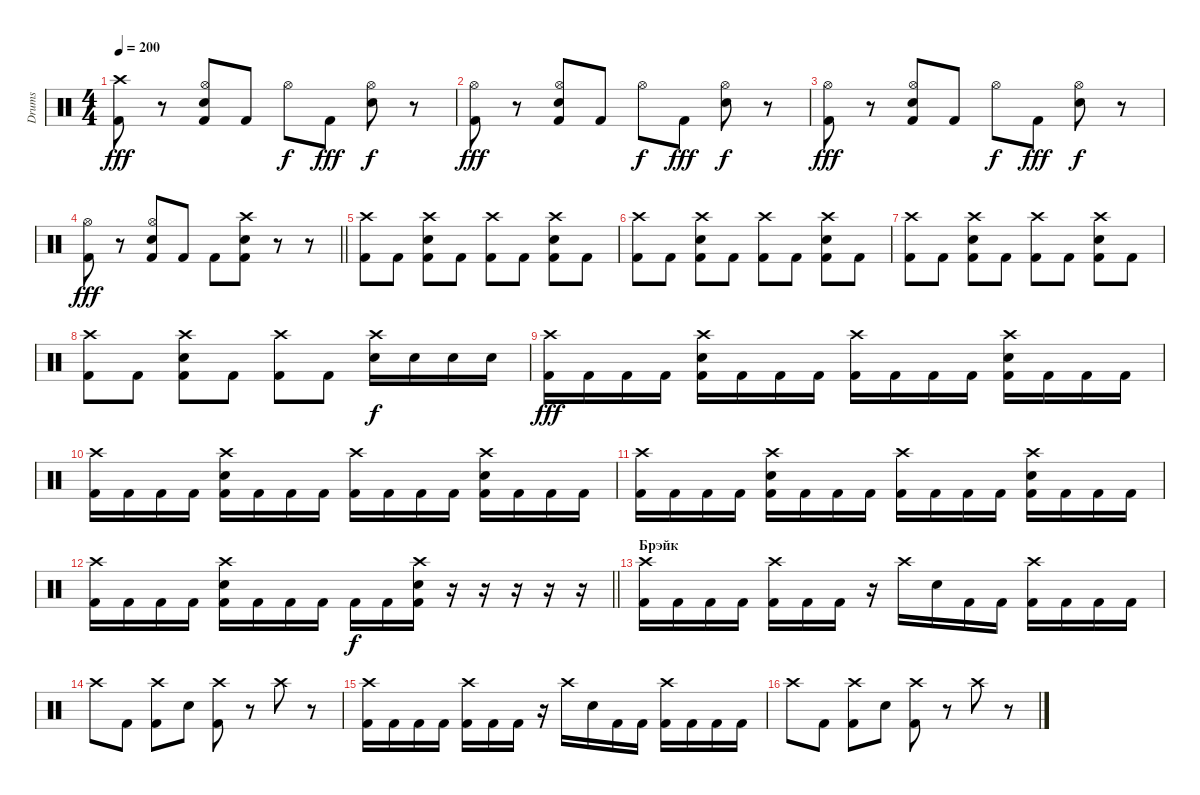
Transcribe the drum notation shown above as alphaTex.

\track ("Drums" "Drums") {instrument percussion}
\staff {score}
\articulation defaults
\ts (4 4)
\tempo 200
\clef neutral
\ks c
("Crash high (hit)" "Kick (hit) 2").8{dy fff} r.8 ("Hi-Hat (open)" "Electric Snare (hit)" "Kick (hit) 2").8 "Kick (hit) 2".8 "Hi-Hat (open)".8{dy f} "Kick (hit) 2".8{dy fff} ("Hi-Hat (open)" "Electric Snare (hit)").8{dy f} r.8 |
("Hi-Hat (open)" "Kick (hit) 2").8{dy fff} r.8 ("Hi-Hat (open)" "Electric Snare (hit)" "Kick (hit) 2").8 "Kick (hit) 2".8 "Hi-Hat (open)".8{dy f} "Kick (hit) 2".8{dy fff} ("Hi-Hat (open)" "Electric Snare (hit)").8{dy f} r.8 |
("Hi-Hat (open)" "Kick (hit) 2").8{dy fff} r.8 ("Hi-Hat (open)" "Electric Snare (hit)" "Kick (hit) 2").8 "Kick (hit) 2".8 "Hi-Hat (open)".8{dy f} "Kick (hit) 2".8{dy fff} ("Hi-Hat (open)" "Electric Snare (hit)").8{dy f} r.8 |
\barLineRight lightlight
("Hi-Hat (open)" "Kick (hit) 2").8{dy fff} r.8 ("Hi-Hat (open)" "Electric Snare (hit)" "Kick (hit) 2").8 "Kick (hit) 2".8 "Kick (hit) 2".8 ("Crash high (hit)" "Electric Snare (hit)" "Kick (hit) 2").8 r.8 r.8 |
\section ("" "")
("Crash high (hit)" "Kick (hit) 2").8 "Kick (hit) 2".8 ("Crash high (hit)" "Electric Snare (hit)" "Kick (hit) 2").8 "Kick (hit) 2".8 ("Crash high (hit)" "Kick (hit) 2").8 "Kick (hit) 2".8 ("Crash high (hit)" "Electric Snare (hit)" "Kick (hit) 2").8 "Kick (hit) 2".8 |
("Crash high (hit)" "Kick (hit) 2").8 "Kick (hit) 2".8 ("Crash high (hit)" "Electric Snare (hit)" "Kick (hit) 2").8 "Kick (hit) 2".8 ("Crash high (hit)" "Kick (hit) 2").8 "Kick (hit) 2".8 ("Crash high (hit)" "Electric Snare (hit)" "Kick (hit) 2").8 "Kick (hit) 2".8 |
("Crash high (hit)" "Kick (hit) 2").8 "Kick (hit) 2".8 ("Crash high (hit)" "Electric Snare (hit)" "Kick (hit) 2").8 "Kick (hit) 2".8 ("Crash high (hit)" "Kick (hit) 2").8 "Kick (hit) 2".8 ("Crash high (hit)" "Electric Snare (hit)" "Kick (hit) 2").8 "Kick (hit) 2".8 |
("Crash high (hit)" "Kick (hit) 2").8 "Kick (hit) 2".8 ("Crash high (hit)" "Electric Snare (hit)" "Kick (hit) 2").8 "Kick (hit) 2".8 ("Crash high (hit)" "Kick (hit) 2").8 "Kick (hit) 2".8 ("Crash high (hit)" "Electric Snare (hit)").16{dy f} "Electric Snare (hit)".16 "Electric Snare (hit)".16 "Electric Snare (hit)".16 |
("Crash high (hit)" "Kick (hit) 2").16{dy fff} "Kick (hit) 2".16 "Kick (hit) 2".16 "Kick (hit) 2".16 ("Crash high (hit)" "Electric Snare (hit)" "Kick (hit) 2").16 "Kick (hit) 2".16 "Kick (hit) 2".16 "Kick (hit) 2".16 ("Crash high (hit)" "Kick (hit) 2").16 "Kick (hit) 2".16 "Kick (hit) 2".16 "Kick (hit) 2".16 ("Crash high (hit)" "Electric Snare (hit)" "Kick (hit) 2").16 "Kick (hit) 2".16 "Kick (hit) 2".16 "Kick (hit) 2".16 |
("Crash high (hit)" "Kick (hit) 2").16 "Kick (hit) 2".16 "Kick (hit) 2".16 "Kick (hit) 2".16 ("Crash high (hit)" "Electric Snare (hit)" "Kick (hit) 2").16 "Kick (hit) 2".16 "Kick (hit) 2".16 "Kick (hit) 2".16 ("Crash high (hit)" "Kick (hit) 2").16 "Kick (hit) 2".16 "Kick (hit) 2".16 "Kick (hit) 2".16 ("Crash high (hit)" "Electric Snare (hit)" "Kick (hit) 2").16 "Kick (hit) 2".16 "Kick (hit) 2".16 "Kick (hit) 2".16 |
("Crash high (hit)" "Kick (hit) 2").16 "Kick (hit) 2".16 "Kick (hit) 2".16 "Kick (hit) 2".16 ("Crash high (hit)" "Electric Snare (hit)" "Kick (hit) 2").16 "Kick (hit) 2".16 "Kick (hit) 2".16 "Kick (hit) 2".16 ("Crash high (hit)" "Kick (hit) 2").16 "Kick (hit) 2".16 "Kick (hit) 2".16 "Kick (hit) 2".16 ("Crash high (hit)" "Electric Snare (hit)" "Kick (hit) 2").16 "Kick (hit) 2".16 "Kick (hit) 2".16 "Kick (hit) 2".16 |
\barLineRight lightlight
("Crash high (hit)" "Kick (hit) 2").16 "Kick (hit) 2".16 "Kick (hit) 2".16 "Kick (hit) 2".16 ("Crash high (hit)" "Electric Snare (hit)" "Kick (hit) 2").16 "Kick (hit) 2".16 "Kick (hit) 2".16 "Kick (hit) 2".16 "Kick (hit) 2".16{dy f} "Kick (hit) 2".16 ("Crash high (hit)" "Electric Snare (hit)" "Kick (hit) 2").16 r.16 r.16 r.16 r.16 r.16 |
\section ("" "Брэйк")
("Crash high (hit)" "Kick (hit) 2").16 "Kick (hit) 2".16 "Kick (hit) 2".16 "Kick (hit) 2".16 ("Crash high (hit)" "Kick (hit) 2").16 "Kick (hit) 2".16 "Kick (hit) 2".16 r.16 "Crash high (hit)".16 "Electric Snare (hit)".16 "Kick (hit) 2".16 "Kick (hit) 2".16 ("Crash high (hit)" "Kick (hit) 2").16 "Kick (hit) 2".16 "Kick (hit) 2".16 "Kick (hit) 2".16 |
"Crash high (hit)".8 "Kick (hit) 2".8 ("Crash high (hit)" "Kick (hit) 2").8 "Electric Snare (hit)".8 ("Crash high (hit)" "Kick (hit) 2").8 r.8 "Crash high (hit)".8 r.8 |
("Crash high (hit)" "Kick (hit) 2").16 "Kick (hit) 2".16 "Kick (hit) 2".16 "Kick (hit) 2".16 ("Crash high (hit)" "Kick (hit) 2").16 "Kick (hit) 2".16 "Kick (hit) 2".16 r.16 "Crash high (hit)".16 "Electric Snare (hit)".16 "Kick (hit) 2".16 "Kick (hit) 2".16 ("Crash high (hit)" "Kick (hit) 2").16 "Kick (hit) 2".16 "Kick (hit) 2".16 "Kick (hit) 2".16 |
"Crash high (hit)".8 "Kick (hit) 2".8 ("Crash high (hit)" "Kick (hit) 2").8 "Electric Snare (hit)".8 ("Crash high (hit)" "Kick (hit) 2").8 r.8 "Crash high (hit)".8 r.8
